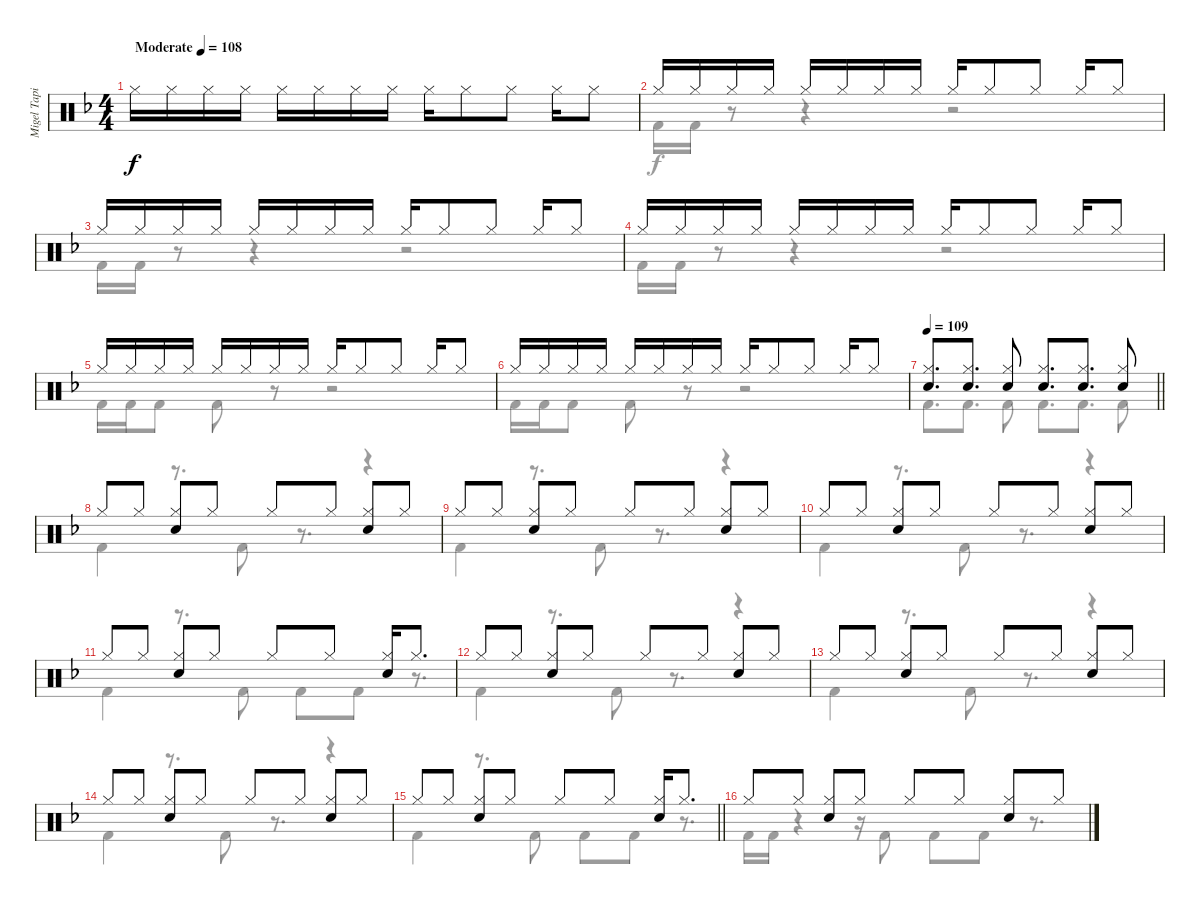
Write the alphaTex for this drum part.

\track ("Migel Tapia (Batería)" "Migel Tapi") {instrument percussion}
\staff {score}
\articulation defaults
\voice
\ts (4 4)
\tempo (108 "Moderate")
\clef neutral
\ks dminor "Hi-Hat (closed)".16{dy f} "Hi-Hat (closed)".16 "Hi-Hat (closed)".16 "Hi-Hat (closed)".16 "Hi-Hat (closed)".16 "Hi-Hat (closed)".16 "Hi-Hat (closed)".16 "Hi-Hat (closed)".16 "Hi-Hat (closed)".16 "Hi-Hat (closed)".8 "Hi-Hat (closed)".8 "Hi-Hat (closed)".16 "Hi-Hat (closed)".8
|
"Hi-Hat (closed)".16 "Hi-Hat (closed)".16 "Hi-Hat (closed)".16 "Hi-Hat (closed)".16 "Hi-Hat (closed)".16 "Hi-Hat (closed)".16 "Hi-Hat (closed)".16 "Hi-Hat (closed)".16 "Hi-Hat (closed)".16 "Hi-Hat (closed)".8 "Hi-Hat (closed)".8 "Hi-Hat (closed)".16 "Hi-Hat (closed)".8 |
"Hi-Hat (closed)".16 "Hi-Hat (closed)".16 "Hi-Hat (closed)".16 "Hi-Hat (closed)".16 "Hi-Hat (closed)".16 "Hi-Hat (closed)".16 "Hi-Hat (closed)".16 "Hi-Hat (closed)".16 "Hi-Hat (closed)".16 "Hi-Hat (closed)".8 "Hi-Hat (closed)".8 "Hi-Hat (closed)".16 "Hi-Hat (closed)".8 |
"Hi-Hat (closed)".16 "Hi-Hat (closed)".16 "Hi-Hat (closed)".16 "Hi-Hat (closed)".16 "Hi-Hat (closed)".16 "Hi-Hat (closed)".16 "Hi-Hat (closed)".16 "Hi-Hat (closed)".16 "Hi-Hat (closed)".16 "Hi-Hat (closed)".8 "Hi-Hat (closed)".8 "Hi-Hat (closed)".16 "Hi-Hat (closed)".8 |
"Hi-Hat (closed)".16 "Hi-Hat (closed)".16 "Hi-Hat (closed)".16 "Hi-Hat (closed)".16 "Hi-Hat (closed)".16 "Hi-Hat (closed)".16 "Hi-Hat (closed)".16 "Hi-Hat (closed)".16 "Hi-Hat (closed)".16 "Hi-Hat (closed)".8 "Hi-Hat (closed)".8 "Hi-Hat (closed)".16 "Hi-Hat (closed)".8 |
"Hi-Hat (closed)".16 "Hi-Hat (closed)".16 "Hi-Hat (closed)".16 "Hi-Hat (closed)".16 "Hi-Hat (closed)".16 "Hi-Hat (closed)".16 "Hi-Hat (closed)".16 "Hi-Hat (closed)".16 "Hi-Hat (closed)".16 "Hi-Hat (closed)".8 "Hi-Hat (closed)".8 "Hi-Hat (closed)".16 "Hi-Hat (closed)".8 |
\tempo 109
\barLineRight lightlight
("Hi-Hat (closed)" "Snare (hit) 2").8{d} ("Hi-Hat (closed)" "Snare (hit) 2").8{d} ("Hi-Hat (closed)" "Snare (hit) 2").8 ("Hi-Hat (closed)" "Snare (hit) 2").8{d} ("Hi-Hat (closed)" "Snare (hit) 2").8{d} ("Hi-Hat (closed)" "Snare (hit) 2").8 |
"Hi-Hat (closed)".8 "Hi-Hat (closed)".8 ("Hi-Hat (closed)" "Snare (hit) 2").8 "Hi-Hat (closed)".8 "Hi-Hat (closed)".8 "Hi-Hat (closed)".8 ("Hi-Hat (closed)" "Snare (hit) 2").8 "Hi-Hat (closed)".8 |
"Hi-Hat (closed)".8 "Hi-Hat (closed)".8 ("Hi-Hat (closed)" "Snare (hit) 2").8 "Hi-Hat (closed)".8 "Hi-Hat (closed)".8 "Hi-Hat (closed)".8 ("Hi-Hat (closed)" "Snare (hit) 2").8 "Hi-Hat (closed)".8 |
"Hi-Hat (closed)".8 "Hi-Hat (closed)".8 ("Hi-Hat (closed)" "Snare (hit) 2").8 "Hi-Hat (closed)".8 "Hi-Hat (closed)".8 "Hi-Hat (closed)".8 ("Hi-Hat (closed)" "Snare (hit) 2").8 "Hi-Hat (closed)".8 |
"Hi-Hat (closed)".8 "Hi-Hat (closed)".8 ("Hi-Hat (closed)" "Snare (hit) 2").8 "Hi-Hat (closed)".8 "Hi-Hat (closed)".8 "Hi-Hat (closed)".8 ("Hi-Hat (closed)" "Snare (hit) 2").16 "Hi-Hat (closed)".8{d} |
"Hi-Hat (closed)".8 "Hi-Hat (closed)".8 ("Hi-Hat (closed)" "Snare (hit) 2").8 "Hi-Hat (closed)".8 "Hi-Hat (closed)".8 "Hi-Hat (closed)".8 ("Hi-Hat (closed)" "Snare (hit) 2").8 "Hi-Hat (closed)".8 |
"Hi-Hat (closed)".8 "Hi-Hat (closed)".8 ("Hi-Hat (closed)" "Snare (hit) 2").8 "Hi-Hat (closed)".8 "Hi-Hat (closed)".8 "Hi-Hat (closed)".8 ("Hi-Hat (closed)" "Snare (hit) 2").8 "Hi-Hat (closed)".8 |
"Hi-Hat (closed)".8 "Hi-Hat (closed)".8 ("Hi-Hat (closed)" "Snare (hit) 2").8 "Hi-Hat (closed)".8 "Hi-Hat (closed)".8 "Hi-Hat (closed)".8 ("Hi-Hat (closed)" "Snare (hit) 2").8 "Hi-Hat (closed)".8 |
\barLineRight lightlight "Hi-Hat (closed)".8 "Hi-Hat (closed)".8
("Hi-Hat (closed)" "Snare (hit) 2").8 "Hi-Hat (closed)".8 "Hi-Hat (closed)".8 "Hi-Hat (closed)".8 ("Hi-Hat (closed)" "Snare (hit) 2").16 "Hi-Hat (closed)".8{d} |
"Hi-Hat (closed)".8 "Hi-Hat (closed)".8 ("Hi-Hat (closed)" "Snare (hit) 2").8 "Hi-Hat (closed)".8 "Hi-Hat (closed)".8 "Hi-Hat (closed)".8 ("Hi-Hat (closed)" "Snare (hit) 2").8 "Hi-Hat (closed)".8
\voice
\clef neutral
\ottava regular
\simile none
\ks dminor
|
"Kick (hit) 2".16 "Kick (hit) 2".16 r.8 r.4 r.2 |
"Kick (hit) 2".16 "Kick (hit) 2".16 r.8 r.4 r.2 |
"Kick (hit) 2".16 "Kick (hit) 2".16 r.8 r.4 r.2 |
"Kick (hit) 2".16 "Kick (hit) 2".16 "Kick (hit) 2".8 "Kick (hit) 2".8 r.8 r.2 |
"Kick (hit) 2".16 "Kick (hit) 2".16 "Kick (hit) 2".8 "Kick (hit) 2".8 r.8 r.2 |
\barLineRight lightlight "Kick (hit) 2".8{d} "Kick (hit) 2".8{d} "Kick (hit) 2".8 "Kick (hit) 2".8{d} "Kick (hit) 2".8{d} "Kick (hit) 2".8
|
"Kick (hit) 2".4 r.8{d} "Kick (hit) 2".8 r.8{d} r.4 |
"Kick (hit) 2".4 r.8{d} "Kick (hit) 2".8 r.8{d} r.4 |
"Kick (hit) 2".4 r.8{d} "Kick (hit) 2".8 r.8{d} r.4 |
"Kick (hit) 2".4 r.8{d} "Kick (hit) 2".8 "Kick (hit) 2".8 "Kick (hit) 2".8 r.8{d} |
"Kick (hit) 2".4 r.8{d} "Kick (hit) 2".8 r.8{d} r.4 |
"Kick (hit) 2".4 r.8{d} "Kick (hit) 2".8 r.8{d} r.4 |
"Kick (hit) 2".4 r.8{d} "Kick (hit) 2".8 r.8{d} r.4 |
\barLineRight lightlight "Kick (hit) 2".4
r.8{d} "Kick (hit) 2".8 "Kick (hit) 2".8 "Kick (hit) 2".8 r.8{d} |
"Kick (hit) 2".16 "Kick (hit) 2".16 r.4 r.16 "Kick (hit) 2".8 "Kick (hit) 2".8 "Kick (hit) 2".8 r.8{d}
